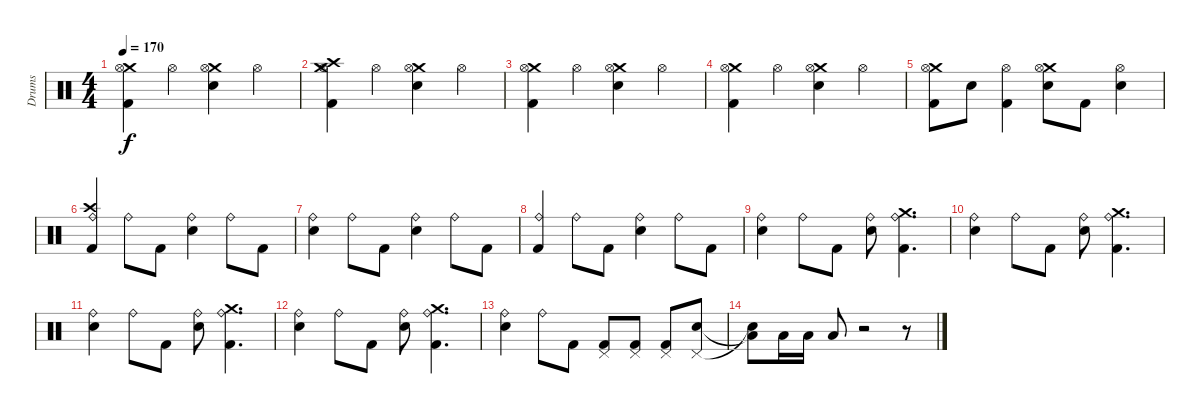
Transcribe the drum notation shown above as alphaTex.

\track ("Drums" "Drums") {instrument percussion}
\staff {score}
\articulation defaults
\ts (4 4)
\tempo 170
\clef neutral
\ks c
("Crash medium (hit)" "Hi-Hat (open)" "Kick (hit) 2").4{dy f} "Hi-Hat (open)".4 ("Crash medium (hit)" "Hi-Hat (open)" "Snare (hit) 2").4 "Hi-Hat (open)".4 |
("Crash medium (hit)" "Hi-Hat (open)" "Kick (hit) 2" "Crash high (hit)").4 "Hi-Hat (open)".4 ("Crash medium (hit)" "Hi-Hat (open)" "Snare (hit) 2").4 "Hi-Hat (open)".4 |
("Crash medium (hit)" "Hi-Hat (open)" "Kick (hit) 2").4 "Hi-Hat (open)".4 ("Crash medium (hit)" "Hi-Hat (open)" "Snare (hit) 2").4 "Hi-Hat (open)".4 |
("Crash medium (hit)" "Hi-Hat (open)" "Kick (hit) 2").4 "Hi-Hat (open)".4 ("Crash medium (hit)" "Hi-Hat (open)" "Snare (hit) 2").4 "Hi-Hat (open)".4 |
("Crash medium (hit)" "Hi-Hat (open)" "Kick (hit) 2").8 "Snare (hit) 2".8 ("Hi-Hat (open)" "Kick (hit) 2").4 ("Crash medium (hit)" "Hi-Hat (open)" "Snare (hit) 2").8 "Kick (hit) 2".8 ("Hi-Hat (open)" "Snare (hit) 2").4 |
("Crash high (hit)" "Ride (bell)" "Kick (hit) 2").4{beam Up} "Ride (bell)".8 "Kick (hit) 2".8 ("Ride (bell)" "Snare (hit) 2").4 "Ride (bell)".8 "Kick (hit) 2".8 |
("Ride (bell)" "Snare (hit) 2").4 "Ride (bell)".8 "Kick (hit) 2".8 ("Ride (bell)" "Snare (hit) 2").4 "Ride (bell)".8 "Kick (hit) 2".8 |
("Ride (bell)" "Kick (hit) 2").4{beam Up} "Ride (bell)".8 "Kick (hit) 2".8 ("Ride (bell)" "Snare (hit) 2").4 "Ride (bell)".8 "Kick (hit) 2".8 |
("Ride (bell)" "Snare (hit) 2").4 "Ride (bell)".8 "Kick (hit) 2".8 ("Ride (bell)" "Snare (hit) 2").8 ("Crash medium (hit)" "Ride (bell)" "Kick (hit) 2").4{d} |
("Ride (bell)" "Snare (hit) 2").4 "Ride (bell)".8 "Kick (hit) 2".8 ("Ride (bell)" "Snare (hit) 2").8 ("Crash medium (hit)" "Ride (bell)" "Kick (hit) 2").4{d} |
("Ride (bell)" "Snare (hit) 2").4 "Ride (bell)".8 "Kick (hit) 2".8 ("Ride (bell)" "Snare (hit) 2").8 ("Crash medium (hit)" "Ride (bell)" "Kick (hit) 2").4{d} |
("Ride (bell)" "Snare (hit) 2").4 "Ride (bell)".8 "Kick (hit) 2".8 ("Ride (bell)" "Snare (hit) 2").8 ("Crash medium (hit)" "Ride (bell)" "Kick (hit) 2").4{d} |
("Ride (bell)" "Snare (hit) 2").4 "Ride (bell)".8 "Kick (hit) 2".8 ("Pedal Hi-Hat (hit)" "Kick (hit) 2").8 ("Pedal Hi-Hat (hit)" "Kick (hit) 2").8 ("Pedal Hi-Hat (hit)" "Kick (hit) 2").8 ("Pedal Hi-Hat (hit)" "Snare (hit) 2").8 |
("Snare (hit)"{t} "Low Tom (hit)"{t}).8 "Low Tom (hit)".16 "Low Tom (hit)".16 "Low Tom (hit)".8 r.2 r.8
